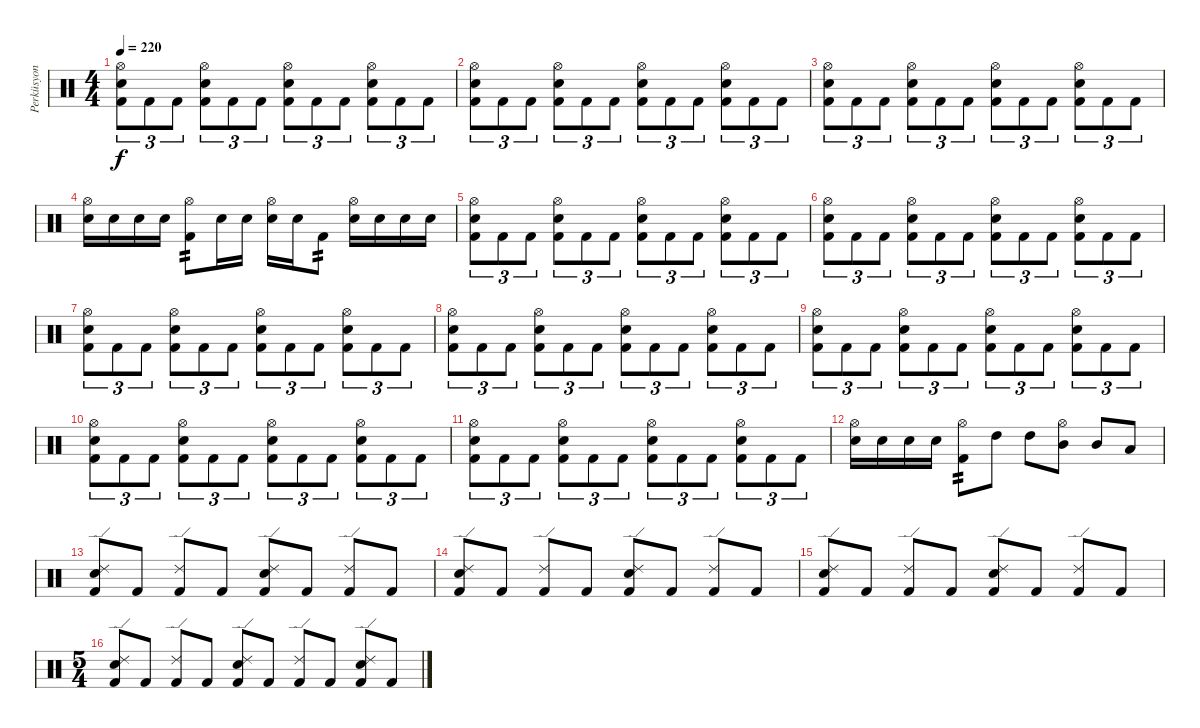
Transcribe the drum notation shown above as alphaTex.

\track ("Perküsyon" "Perküsyon") {instrument percussion}
\staff {score}
\articulation defaults
\ts (4 4)
\tempo 220
\clef neutral
\ks c
("Hi-Hat (open)" "Electric Snare (hit)" "Kick (hit) 2").8{tu (3 2) dy f} "Kick (hit) 2".8{tu (3 2)} "Kick (hit) 2".8{tu (3 2)} ("Hi-Hat (open)" "Electric Snare (hit)" "Kick (hit) 2").8{tu (3 2)} "Kick (hit) 2".8{tu (3 2)} "Kick (hit) 2".8{tu (3 2)} ("Hi-Hat (open)" "Electric Snare (hit)" "Kick (hit) 2").8{tu (3 2)} "Kick (hit) 2".8{tu (3 2)} "Kick (hit) 2".8{tu (3 2)} ("Hi-Hat (open)" "Electric Snare (hit)" "Kick (hit) 2").8{tu (3 2)} "Kick (hit) 2".8{tu (3 2)} "Kick (hit) 2".8{tu (3 2)} |
("Hi-Hat (open)" "Electric Snare (hit)" "Kick (hit) 2").8{tu (3 2)} "Kick (hit) 2".8{tu (3 2)} "Kick (hit) 2".8{tu (3 2)} ("Hi-Hat (open)" "Electric Snare (hit)" "Kick (hit) 2").8{tu (3 2)} "Kick (hit) 2".8{tu (3 2)} "Kick (hit) 2".8{tu (3 2)} ("Hi-Hat (open)" "Electric Snare (hit)" "Kick (hit) 2").8{tu (3 2)} "Kick (hit) 2".8{tu (3 2)} "Kick (hit) 2".8{tu (3 2)} ("Hi-Hat (open)" "Electric Snare (hit)" "Kick (hit) 2").8{tu (3 2)} "Kick (hit) 2".8{tu (3 2)} "Kick (hit) 2".8{tu (3 2)} |
("Hi-Hat (open)" "Electric Snare (hit)" "Kick (hit) 2").8{tu (3 2)} "Kick (hit) 2".8{tu (3 2)} "Kick (hit) 2".8{tu (3 2)} ("Hi-Hat (open)" "Electric Snare (hit)" "Kick (hit) 2").8{tu (3 2)} "Kick (hit) 2".8{tu (3 2)} "Kick (hit) 2".8{tu (3 2)} ("Hi-Hat (open)" "Electric Snare (hit)" "Kick (hit) 2").8{tu (3 2)} "Kick (hit) 2".8{tu (3 2)} "Kick (hit) 2".8{tu (3 2)} ("Hi-Hat (open)" "Electric Snare (hit)" "Kick (hit) 2").8{tu (3 2)} "Kick (hit) 2".8{tu (3 2)} "Kick (hit) 2".8{tu (3 2)} |
("Hi-Hat (open)" "Electric Snare (hit)").16 "Electric Snare (hit)".16 "Electric Snare (hit)".16 "Electric Snare (hit)".16 ("Hi-Hat (open)" "Kick (hit) 2").8{tp 2} "Electric Snare (hit)".16 "Electric Snare (hit)".16 ("Hi-Hat (open)" "Electric Snare (hit)").16 "Electric Snare (hit)".16 "Kick (hit) 2".8{tp 2} ("Hi-Hat (open)" "Electric Snare (hit)").16 "Electric Snare (hit)".16 "Electric Snare (hit)".16 "Electric Snare (hit)".16 |
("Hi-Hat (open)" "Electric Snare (hit)" "Kick (hit) 2").8{tu (3 2)} "Kick (hit) 2".8{tu (3 2)} "Kick (hit) 2".8{tu (3 2)} ("Hi-Hat (open)" "Electric Snare (hit)" "Kick (hit) 2").8{tu (3 2)} "Kick (hit) 2".8{tu (3 2)} "Kick (hit) 2".8{tu (3 2)} ("Hi-Hat (open)" "Electric Snare (hit)" "Kick (hit) 2").8{tu (3 2)} "Kick (hit) 2".8{tu (3 2)} "Kick (hit) 2".8{tu (3 2)} ("Hi-Hat (open)" "Electric Snare (hit)" "Kick (hit) 2").8{tu (3 2)} "Kick (hit) 2".8{tu (3 2)} "Kick (hit) 2".8{tu (3 2)} |
("Hi-Hat (open)" "Electric Snare (hit)" "Kick (hit) 2").8{tu (3 2)} "Kick (hit) 2".8{tu (3 2)} "Kick (hit) 2".8{tu (3 2)} ("Hi-Hat (open)" "Electric Snare (hit)" "Kick (hit) 2").8{tu (3 2)} "Kick (hit) 2".8{tu (3 2)} "Kick (hit) 2".8{tu (3 2)} ("Hi-Hat (open)" "Electric Snare (hit)" "Kick (hit) 2").8{tu (3 2)} "Kick (hit) 2".8{tu (3 2)} "Kick (hit) 2".8{tu (3 2)} ("Hi-Hat (open)" "Electric Snare (hit)" "Kick (hit) 2").8{tu (3 2)} "Kick (hit) 2".8{tu (3 2)} "Kick (hit) 2".8{tu (3 2)} |
("Hi-Hat (open)" "Electric Snare (hit)" "Kick (hit) 2").8{tu (3 2)} "Kick (hit) 2".8{tu (3 2)} "Kick (hit) 2".8{tu (3 2)} ("Hi-Hat (open)" "Electric Snare (hit)" "Kick (hit) 2").8{tu (3 2)} "Kick (hit) 2".8{tu (3 2)} "Kick (hit) 2".8{tu (3 2)} ("Hi-Hat (open)" "Electric Snare (hit)" "Kick (hit) 2").8{tu (3 2)} "Kick (hit) 2".8{tu (3 2)} "Kick (hit) 2".8{tu (3 2)} ("Hi-Hat (open)" "Electric Snare (hit)" "Kick (hit) 2").8{tu (3 2)} "Kick (hit) 2".8{tu (3 2)} "Kick (hit) 2".8{tu (3 2)} |
("Hi-Hat (open)" "Electric Snare (hit)" "Kick (hit) 2").8{tu (3 2)} "Kick (hit) 2".8{tu (3 2)} "Kick (hit) 2".8{tu (3 2)} ("Hi-Hat (open)" "Electric Snare (hit)" "Kick (hit) 2").8{tu (3 2)} "Kick (hit) 2".8{tu (3 2)} "Kick (hit) 2".8{tu (3 2)} ("Hi-Hat (open)" "Electric Snare (hit)" "Kick (hit) 2").8{tu (3 2)} "Kick (hit) 2".8{tu (3 2)} "Kick (hit) 2".8{tu (3 2)} ("Hi-Hat (open)" "Electric Snare (hit)" "Kick (hit) 2").8{tu (3 2)} "Kick (hit) 2".8{tu (3 2)} "Kick (hit) 2".8{tu (3 2)} |
("Hi-Hat (open)" "Electric Snare (hit)" "Kick (hit) 2").8{tu (3 2)} "Kick (hit) 2".8{tu (3 2)} "Kick (hit) 2".8{tu (3 2)} ("Hi-Hat (open)" "Electric Snare (hit)" "Kick (hit) 2").8{tu (3 2)} "Kick (hit) 2".8{tu (3 2)} "Kick (hit) 2".8{tu (3 2)} ("Hi-Hat (open)" "Electric Snare (hit)" "Kick (hit) 2").8{tu (3 2)} "Kick (hit) 2".8{tu (3 2)} "Kick (hit) 2".8{tu (3 2)} ("Hi-Hat (open)" "Electric Snare (hit)" "Kick (hit) 2").8{tu (3 2)} "Kick (hit) 2".8{tu (3 2)} "Kick (hit) 2".8{tu (3 2)} |
("Hi-Hat (open)" "Electric Snare (hit)" "Kick (hit) 2").8{tu (3 2)} "Kick (hit) 2".8{tu (3 2)} "Kick (hit) 2".8{tu (3 2)} ("Hi-Hat (open)" "Electric Snare (hit)" "Kick (hit) 2").8{tu (3 2)} "Kick (hit) 2".8{tu (3 2)} "Kick (hit) 2".8{tu (3 2)} ("Hi-Hat (open)" "Electric Snare (hit)" "Kick (hit) 2").8{tu (3 2)} "Kick (hit) 2".8{tu (3 2)} "Kick (hit) 2".8{tu (3 2)} ("Hi-Hat (open)" "Electric Snare (hit)" "Kick (hit) 2").8{tu (3 2)} "Kick (hit) 2".8{tu (3 2)} "Kick (hit) 2".8{tu (3 2)} |
("Hi-Hat (open)" "Electric Snare (hit)" "Kick (hit) 2").8{tu (3 2)} "Kick (hit) 2".8{tu (3 2)} "Kick (hit) 2".8{tu (3 2)} ("Hi-Hat (open)" "Electric Snare (hit)" "Kick (hit) 2").8{tu (3 2)} "Kick (hit) 2".8{tu (3 2)} "Kick (hit) 2".8{tu (3 2)} ("Hi-Hat (open)" "Electric Snare (hit)" "Kick (hit) 2").8{tu (3 2)} "Kick (hit) 2".8{tu (3 2)} "Kick (hit) 2".8{tu (3 2)} ("Hi-Hat (open)" "Electric Snare (hit)" "Kick (hit) 2").8{tu (3 2)} "Kick (hit) 2".8{tu (3 2)} "Kick (hit) 2".8{tu (3 2)} |
("Hi-Hat (open)" "Electric Snare (hit)").16 "Electric Snare (hit)".16 "Electric Snare (hit)".16 "Electric Snare (hit)".16 ("Hi-Hat (open)" "Kick (hit) 2").8{tp 2} "High Tom (hit)".8 "High Tom (hit)".8 ("Hi-Hat (open)" "Mid Tom (hit)").8 "Mid Tom (hit)".8 "Low Tom (hit)".8 |
("Ride (edge) 2" "Electric Snare (hit)" "Kick (hit) 2").8 "Kick (hit) 2".8 ("Ride (edge) 2" "Kick (hit) 2").8 "Kick (hit) 2".8 ("Ride (edge) 2" "Electric Snare (hit)" "Kick (hit) 2").8 "Kick (hit) 2".8 ("Ride (edge) 2" "Kick (hit) 2").8 "Kick (hit) 2".8 |
("Ride (edge) 2" "Electric Snare (hit)" "Kick (hit) 2").8 "Kick (hit) 2".8 ("Ride (edge) 2" "Kick (hit) 2").8 "Kick (hit) 2".8 ("Ride (edge) 2" "Electric Snare (hit)" "Kick (hit) 2").8 "Kick (hit) 2".8 ("Ride (edge) 2" "Kick (hit) 2").8 "Kick (hit) 2".8 |
("Ride (edge) 2" "Electric Snare (hit)" "Kick (hit) 2").8 "Kick (hit) 2".8 ("Ride (edge) 2" "Kick (hit) 2").8 "Kick (hit) 2".8 ("Ride (edge) 2" "Electric Snare (hit)" "Kick (hit) 2").8 "Kick (hit) 2".8 ("Ride (edge) 2" "Kick (hit) 2").8 "Kick (hit) 2".8 |
\ts (5 4)
("Ride (edge) 2" "Electric Snare (hit)" "Kick (hit) 2").8 "Kick (hit) 2".8 ("Ride (edge) 2" "Kick (hit) 2").8 "Kick (hit) 2".8 ("Ride (edge) 2" "Electric Snare (hit)" "Kick (hit) 2").8 "Kick (hit) 2".8 ("Ride (edge) 2" "Kick (hit) 2").8 "Kick (hit) 2".8 ("Ride (edge) 2" "Electric Snare (hit)" "Kick (hit) 2").8 "Kick (hit) 2".8
